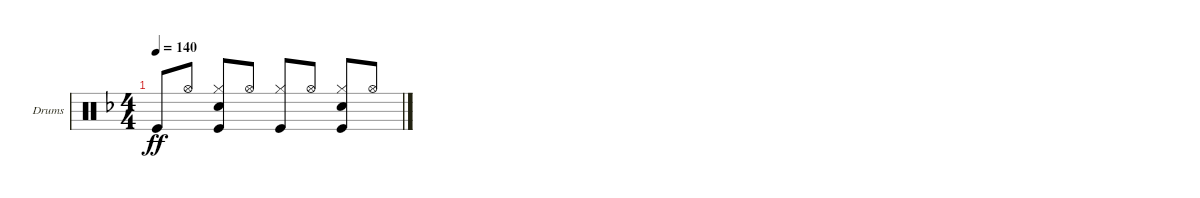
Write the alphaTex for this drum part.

\defaultSystemsLayout 4
\bracketExtendMode groupsimilarinstruments
\firstSystemTrackNameOrientation horizontal
\otherSystemsTrackNameOrientation horizontal
\track ("Drumkit" "Drums") {instrument percussion}
\staff {score}
\articulation defaults
\ts (4 4)
\tempo 140
\clef neutral
\ks f "Kick (hit)".8{dy ff beam invert} "Hi-Hat (open)".8
("Snare (hit) 2" "Hi-Hat (closed)" "Kick (hit)").8{beam invert} "Hi-Hat (open)".8 ("Kick (hit)" "Hi-Hat (closed)").8{beam invert} "Hi-Hat (open)".8 ("Snare (hit) 2" "Hi-Hat (closed)" "Kick (hit)").8{beam invert} "Hi-Hat (open)".8
